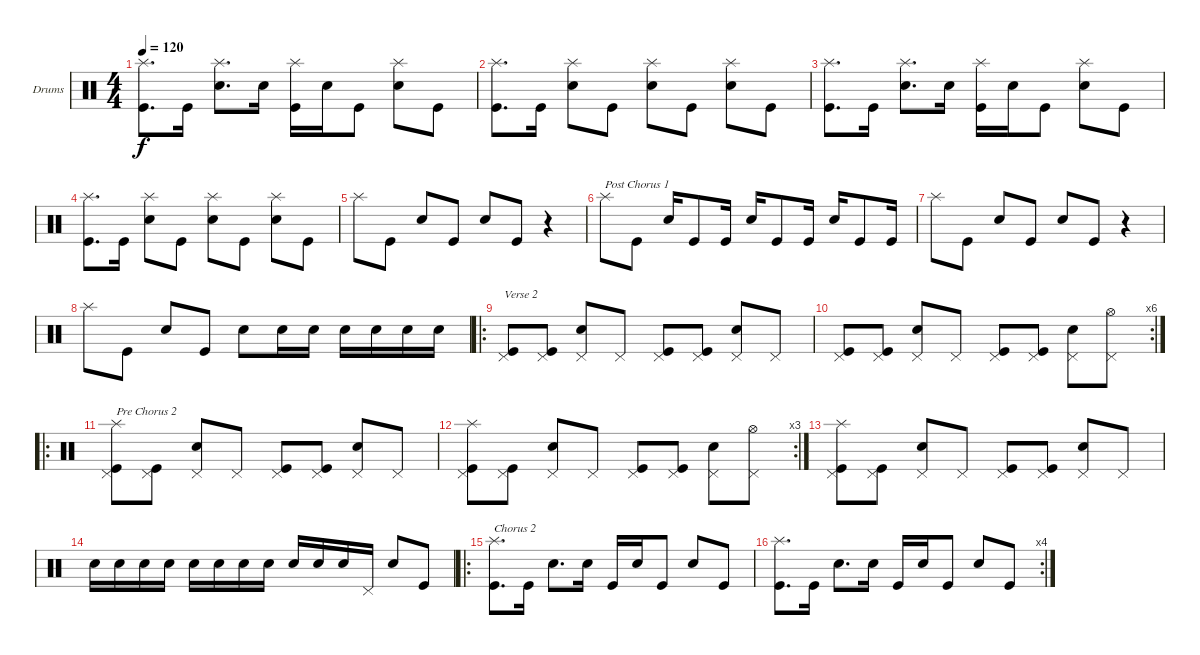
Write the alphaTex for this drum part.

\bracketExtendMode groupsimilarinstruments
\firstSystemTrackNameOrientation horizontal
\otherSystemsTrackNameOrientation horizontal
\track ("Drumkit" "Drums") {instrument percussion}
\staff {score}
\articulation defaults
\ts (4 4)
\tempo 120
\clef neutral
\ks c
("Splash (hit)" "Kick (hit)").8{d dy f} "Kick (hit)".16 ("Splash (hit)" "Snare (hit) 2").8{d} "Snare (hit) 2".16 ("Splash (hit)" "Kick (hit)").16 "Snare (hit) 2".16 "Kick (hit)".8 ("Splash (hit)" "Snare (hit) 2").8 "Kick (hit)".8 |
("Splash (hit)" "Kick (hit)").8{d} "Kick (hit)".16 ("Splash (hit)" "Snare (hit) 2").8 "Kick (hit)".8 ("Splash (hit)" "Snare (hit) 2").8 "Kick (hit)".8 ("Splash (hit)" "Snare (hit) 2").8 "Kick (hit)".8 |
("Splash (hit)" "Kick (hit)").8{d} "Kick (hit)".16 ("Splash (hit)" "Snare (hit) 2").8{d} "Snare (hit) 2".16 ("Splash (hit)" "Kick (hit)").16 "Snare (hit) 2".16 "Kick (hit)".8 ("Splash (hit)" "Snare (hit) 2").8 "Kick (hit)".8 |
("Splash (hit)" "Kick (hit)").8{d} "Kick (hit)".16 ("Splash (hit)" "Snare (hit) 2").8 "Kick (hit)".8 ("Splash (hit)" "Snare (hit) 2").8 "Kick (hit)".8 ("Splash (hit)" "Snare (hit) 2").8 "Kick (hit)".8 |
"Splash (hit)".8 "Kick (hit)".8 "Snare (hit) 2".8 "Kick (hit)".8 "Snare (hit) 2".8 "Kick (hit)".8 r.4 |
"Splash (hit)".8{txt "Post Chorus 1"} "Kick (hit)".8 "Snare (hit) 2".16 "Kick (hit)".8 "Kick (hit)".16 "Snare (hit) 2".16 "Kick (hit)".8 "Kick (hit)".16 "Snare (hit) 2".16 "Kick (hit)".8 "Kick (hit)".16 |
"Splash (hit)".8 "Kick (hit)".8 "Snare (hit) 2".8 "Kick (hit)".8 "Snare (hit) 2".8 "Kick (hit)".8 r.4 |
"Splash (hit)".8 "Kick (hit)".8 "Snare (hit) 2".8 "Kick (hit)".8 "Snare (hit) 2".8 "Snare (hit) 2".16 "Snare (hit) 2".16 "Snare (hit) 2".16 "Snare (hit) 2".16 "Snare (hit) 2".16 "Snare (hit) 2".16 |
\ro
("Pedal Hi-Hat (hit)" "Kick (hit)").8{txt "Verse 2"} ("Pedal Hi-Hat (hit)" "Kick (hit)").8 ("Pedal Hi-Hat (hit)" "Snare (hit) 2").8 "Pedal Hi-Hat (hit)".8 ("Pedal Hi-Hat (hit)" "Kick (hit)").8 ("Pedal Hi-Hat (hit)" "Kick (hit)").8 ("Pedal Hi-Hat (hit)" "Snare (hit) 2").8 "Pedal Hi-Hat (hit)".8 |
\rc 6
("Pedal Hi-Hat (hit)" "Kick (hit)").8 ("Pedal Hi-Hat (hit)" "Kick (hit)").8 ("Pedal Hi-Hat (hit)" "Snare (hit) 2").8 "Pedal Hi-Hat (hit)".8 ("Pedal Hi-Hat (hit)" "Kick (hit)").8 ("Pedal Hi-Hat (hit)" "Kick (hit)").8 ("Pedal Hi-Hat (hit)" "Snare (hit) 2").8 ("Pedal Hi-Hat (hit)" "Hi-Hat (open)").8 |
\ro
("Splash (hit)" "Pedal Hi-Hat (hit)" "Kick (hit)").8{txt "Pre Chorus 2"} ("Pedal Hi-Hat (hit)" "Kick (hit)").8 ("Pedal Hi-Hat (hit)" "Snare (hit) 2").8 "Pedal Hi-Hat (hit)".8 ("Pedal Hi-Hat (hit)" "Kick (hit)").8 ("Pedal Hi-Hat (hit)" "Kick (hit)").8 ("Pedal Hi-Hat (hit)" "Snare (hit) 2").8 "Pedal Hi-Hat (hit)".8 |
\rc 3
("Splash (hit)" "Pedal Hi-Hat (hit)" "Kick (hit)").8 ("Pedal Hi-Hat (hit)" "Kick (hit)").8 ("Pedal Hi-Hat (hit)" "Snare (hit) 2").8 "Pedal Hi-Hat (hit)".8 ("Pedal Hi-Hat (hit)" "Kick (hit)").8 ("Pedal Hi-Hat (hit)" "Kick (hit)").8 ("Pedal Hi-Hat (hit)" "Snare (hit) 2").8 ("Pedal Hi-Hat (hit)" "Hi-Hat (open)").8 |
("Splash (hit)" "Pedal Hi-Hat (hit)" "Kick (hit)").8 ("Pedal Hi-Hat (hit)" "Kick (hit)").8 ("Pedal Hi-Hat (hit)" "Snare (hit) 2").8 "Pedal Hi-Hat (hit)".8 ("Pedal Hi-Hat (hit)" "Kick (hit)").8 ("Pedal Hi-Hat (hit)" "Kick (hit)").8 ("Pedal Hi-Hat (hit)" "Snare (hit) 2").8 "Pedal Hi-Hat (hit)".8 |
"Snare (hit) 2".16 "Snare (hit) 2".16 "Snare (hit) 2".16 "Snare (hit) 2".16 "Snare (hit) 2".16 "Snare (hit) 2".16 "Snare (hit) 2".16 "Snare (hit) 2".16 "Snare (hit) 2".16 "Snare (hit) 2".16 "Snare (hit) 2".16 "Pedal Hi-Hat (hit)".16 "Snare (hit) 2".8 "Kick (hit)".8 |
\ro
("Splash (hit)" "Kick (hit)").8{d txt "Chorus 2"} "Kick (hit)".16 "Snare (hit) 2".8{d} "Snare (hit) 2".16 "Kick (hit)".16 "Snare (hit) 2".16 "Kick (hit)".8 "Snare (hit) 2".8 "Kick (hit)".8 |
\rc 4
("Splash (hit)" "Kick (hit)").8{d} "Kick (hit)".16 "Snare (hit) 2".8{d} "Snare (hit) 2".16 "Kick (hit)".16 "Snare (hit) 2".16 "Kick (hit)".8 "Snare (hit) 2".8 "Kick (hit)".8
